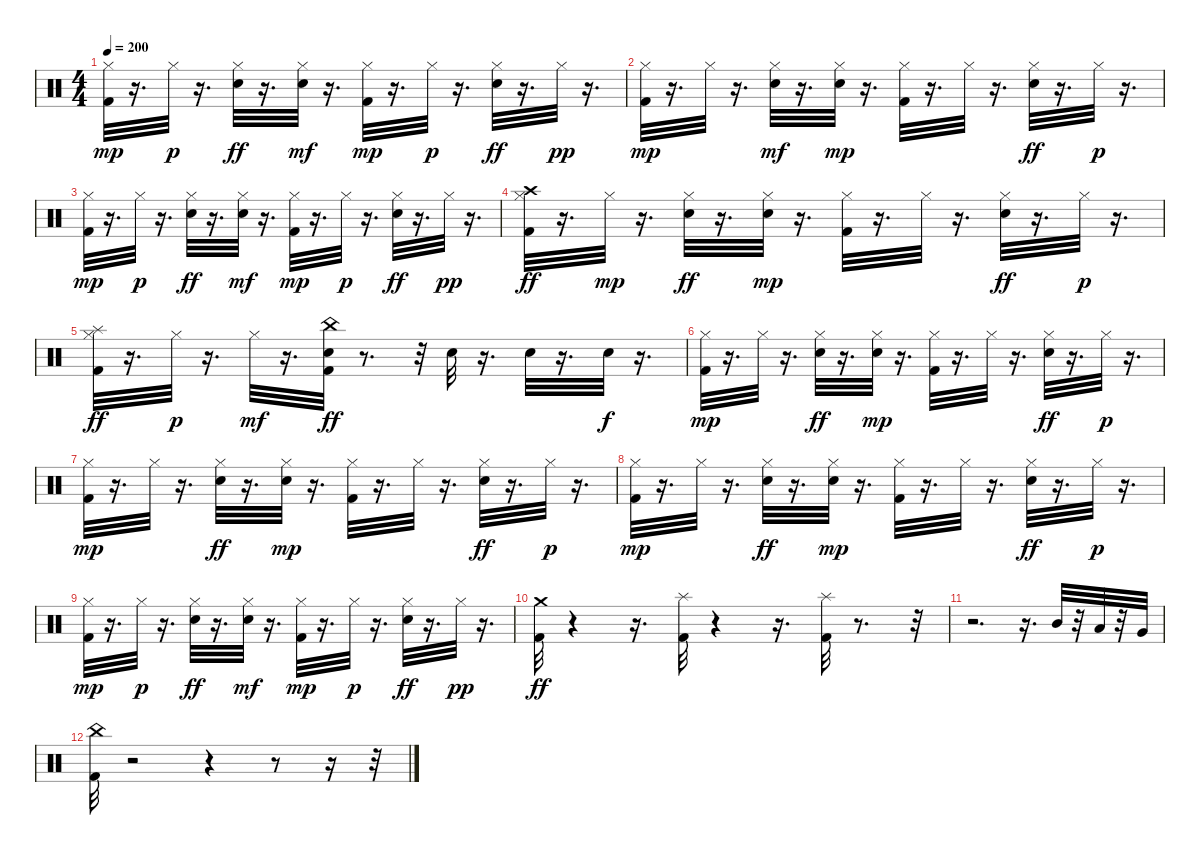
\track "" {instrument percussion}
\staff {score}
\articulation defaults
\ts (4 4)
\tempo 200
\clef neutral
\ks c
("Kick (hit) 2" "Hi-Hat (closed)").32{dy mp} r.16{d} "Hi-Hat (closed)".32{dy p} r.16{d} ("Hi-Hat (closed)" "Electric Snare (hit)").32{dy ff} r.16{d} ("Hi-Hat (closed)" "Electric Snare (hit)").32{dy mf} r.16{d} ("Kick (hit) 2" "Hi-Hat (closed)").32{dy mp} r.16{d} "Hi-Hat (closed)".32{dy p} r.16{d} ("Hi-Hat (closed)" "Electric Snare (hit)").32{dy ff} r.16{d} "Hi-Hat (closed)".32{dy pp} r.16{d} |
("Kick (hit) 2" "Hi-Hat (closed)").32{dy mp} r.16{d} "Hi-Hat (closed)".32 r.16{d} ("Electric Snare (hit)" "Hi-Hat (closed)").32{dy mf} r.16{d} ("Hi-Hat (closed)" "Electric Snare (hit)").32{dy mp} r.16{d} ("Kick (hit) 2" "Hi-Hat (closed)").32 r.16{d} "Hi-Hat (closed)".32 r.16{d} ("Hi-Hat (closed)" "Electric Snare (hit)").32{dy ff} r.16{d} "Hi-Hat (closed)".32{dy p} r.16{d} |
("Kick (hit) 2" "Hi-Hat (closed)").32{dy mp} r.16{d} "Hi-Hat (closed)".32{dy p} r.16{d} ("Hi-Hat (closed)" "Electric Snare (hit)").32{dy ff} r.16{d} ("Hi-Hat (closed)" "Electric Snare (hit)").32{dy mf} r.16{d} ("Kick (hit) 2" "Hi-Hat (closed)").32{dy mp} r.16{d} "Hi-Hat (closed)".32{dy p} r.16{d} ("Hi-Hat (closed)" "Electric Snare (hit)").32{dy ff} r.16{d} "Hi-Hat (closed)".32{dy pp} r.16{d} |
("Kick (hit) 2" "Hi-Hat (closed)" "Crash high (hit)").32{dy ff} r.16{d} "Hi-Hat (closed)".32{dy mp} r.16{d} ("Hi-Hat (closed)" "Electric Snare (hit)").32{dy ff} r.16{d} ("Hi-Hat (closed)" "Electric Snare (hit)").32{dy mp} r.16{d} ("Kick (hit) 2" "Hi-Hat (closed)").32 r.16{d} "Hi-Hat (closed)".32 r.16{d} ("Hi-Hat (closed)" "Electric Snare (hit)").32{dy ff} r.16{d} "Hi-Hat (closed)".32{dy p} r.16{d} |
("Kick (hit) 2" "Hi-Hat (closed)" "Splash (hit)").32{dy ff} r.16{d} "Hi-Hat (closed)".32{dy p} r.16{d} "Hi-Hat (closed)".32{dy mf} r.16{d} ("Kick (hit) 2" "Electric Snare (hit)" "China (hit)").32{dy ff} r.8{d} r.32 "Electric Snare (hit)".32 r.16{d} "Electric Snare (hit)".32 r.16{d} "Electric Snare (hit)".32{dy f} r.16{d} |
("Kick (hit) 2" "Hi-Hat (closed)").32{dy mp} r.16{d} "Hi-Hat (closed)".32 r.16{d} ("Hi-Hat (closed)" "Electric Snare (hit)").32{dy ff} r.16{d} ("Hi-Hat (closed)" "Electric Snare (hit)").32{dy mp} r.16{d} ("Kick (hit) 2" "Hi-Hat (closed)").32 r.16{d} "Hi-Hat (closed)".32 r.16{d} ("Hi-Hat (closed)" "Electric Snare (hit)").32{dy ff} r.16{d} "Hi-Hat (closed)".32{dy p} r.16{d} |
("Kick (hit) 2" "Hi-Hat (closed)").32{dy mp} r.16{d} "Hi-Hat (closed)".32 r.16{d} ("Hi-Hat (closed)" "Electric Snare (hit)").32{dy ff} r.16{d} ("Hi-Hat (closed)" "Electric Snare (hit)").32{dy mp} r.16{d} ("Kick (hit) 2" "Hi-Hat (closed)").32 r.16{d} "Hi-Hat (closed)".32 r.16{d} ("Hi-Hat (closed)" "Electric Snare (hit)").32{dy ff} r.16{d} "Hi-Hat (closed)".32{dy p} r.16{d} |
("Kick (hit) 2" "Hi-Hat (closed)").32{dy mp} r.16{d} "Hi-Hat (closed)".32 r.16{d} ("Hi-Hat (closed)" "Electric Snare (hit)").32{dy ff} r.16{d} ("Hi-Hat (closed)" "Electric Snare (hit)").32{dy mp} r.16{d} ("Kick (hit) 2" "Hi-Hat (closed)").32 r.16{d} "Hi-Hat (closed)".32 r.16{d} ("Hi-Hat (closed)" "Electric Snare (hit)").32{dy ff} r.16{d} "Hi-Hat (closed)".32{dy p} r.16{d} |
("Kick (hit) 2" "Hi-Hat (closed)").32{dy mp} r.16{d} "Hi-Hat (closed)".32{dy p} r.16{d} ("Hi-Hat (closed)" "Electric Snare (hit)").32{dy ff} r.16{d} ("Hi-Hat (closed)" "Electric Snare (hit)").32{dy mf} r.16{d} ("Kick (hit) 2" "Hi-Hat (closed)").32{dy mp} r.16{d} "Hi-Hat (closed)".32{dy p} r.16{d} ("Hi-Hat (closed)" "Electric Snare (hit)").32{dy ff} r.16{d} "Hi-Hat (closed)".32{dy pp} r.16{d} |
("Kick (hit) 2" "Crash medium (hit)").32{dy ff} r.4 r.16{d} ("Kick (hit) 2" "Splash (hit)").32 r.4 r.16{d} ("Kick (hit) 2" "Splash (hit)").32 r.8{d} r.32 |
r.2{d} r.16{d} "Mid Tom (hit)".32 r.32 "Low Tom (hit)".32 r.32 "Very Low Tom (hit)".32 |
("Kick (hit) 2" "China (hit)").32 r.2 r.4 r.8 r.16 r.32
